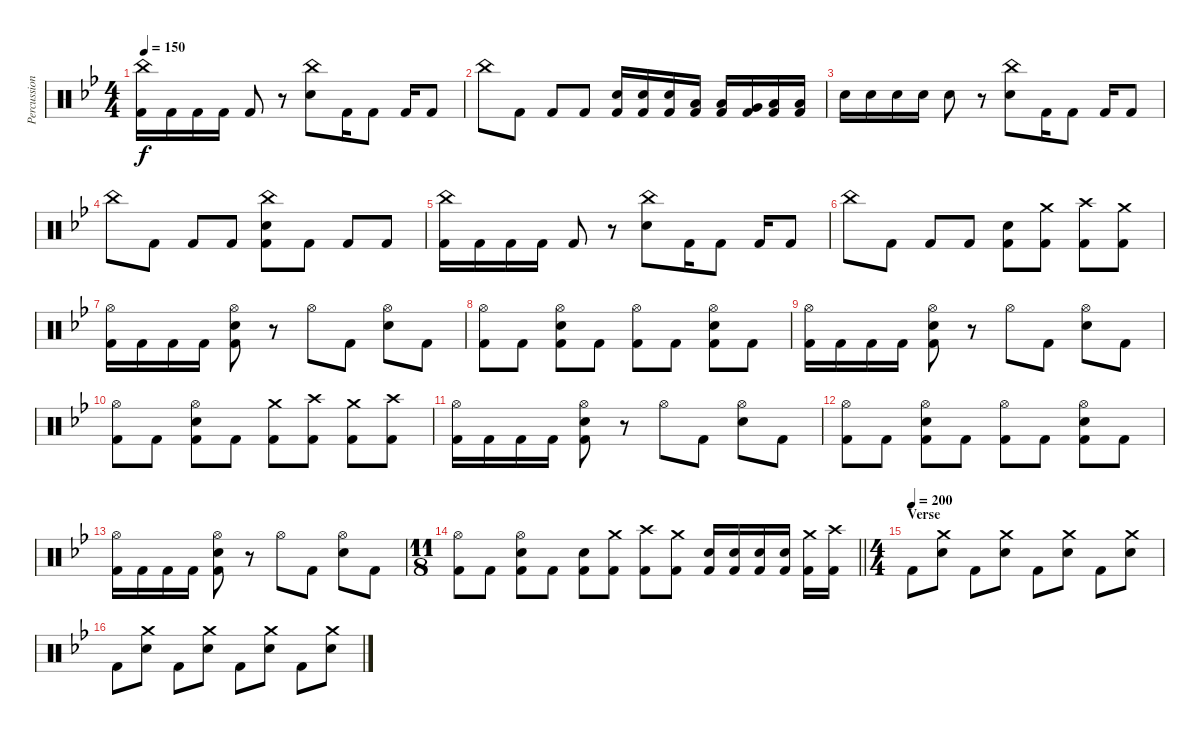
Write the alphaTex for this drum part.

\track ("Percussion" "Percussion") {instrument percussion}
\staff {score}
\articulation defaults
\ts (4 4)
\tempo 150
\clef neutral
\ks bb
("China (hit)" "Kick (hit) 2").16{dy f} "Kick (hit) 2".16 "Kick (hit) 2".16 "Kick (hit) 2".16 "Kick (hit) 2".8 r.8 ("China (hit)" "Electric Snare (hit)").8 "Kick (hit) 2".16 "Kick (hit) 2".8 "Kick (hit) 2".16 "Kick (hit) 2".8 |
"China (hit)".8 "Kick (hit) 2".8 "Kick (hit) 2".8 "Kick (hit) 2".8 ("Electric Snare (hit)" "Kick (hit) 2").16 ("Electric Snare (hit)" "Kick (hit) 2").16 ("Electric Snare (hit)" "Kick (hit) 2").16 ("Low Tom (hit)" "Kick (hit) 2").16 ("Low Tom (hit)" "Kick (hit) 2").16 ("Very Low Tom (hit)" "Kick (hit) 2").16 ("Low Floor Tom (hit)" "Kick (hit) 2").16 ("Low Floor Tom (hit)" "Kick (hit) 2").16 |
"Electric Snare (hit)".16 "Electric Snare (hit)".16 "Electric Snare (hit)".16 "Electric Snare (hit)".16 "Electric Snare (hit)".8 r.8 ("China (hit)" "Electric Snare (hit)").8 "Kick (hit) 2".16 "Kick (hit) 2".8 "Kick (hit) 2".16 "Kick (hit) 2".8 |
"China (hit)".8 "Kick (hit) 2".8 "Kick (hit) 2".8 "Kick (hit) 2".8 ("China (hit)" "Electric Snare (hit)" "Kick (hit) 2").8 "Kick (hit) 2".8 "Kick (hit) 2".8 "Kick (hit) 2".8 |
("China (hit)" "Kick (hit) 2").16 "Kick (hit) 2".16 "Kick (hit) 2".16 "Kick (hit) 2".16 "Kick (hit) 2".8 r.8 ("China (hit)" "Electric Snare (hit)").8 "Kick (hit) 2".16 "Kick (hit) 2".8 "Kick (hit) 2".16 "Kick (hit) 2".8 |
"China (hit)".8 "Kick (hit) 2".8 "Kick (hit) 2".8 "Kick (hit) 2".8 ("Electric Snare (hit)" "Kick (hit) 2").8 ("Crash medium (hit)" "Kick (hit) 2").8 ("Crash high (hit)" "Kick (hit) 2").8 ("Crash medium (hit)" "Kick (hit) 2").8 |
("Hi-Hat (open)" "Kick (hit) 2").16 "Kick (hit) 2".16 "Kick (hit) 2".16 "Kick (hit) 2".16 ("Hi-Hat (open)" "Electric Snare (hit)" "Kick (hit) 2").8 r.8 "Hi-Hat (open)".8 "Kick (hit) 2".8 ("Hi-Hat (open)" "Electric Snare (hit)").8 "Kick (hit) 2".8 |
("Hi-Hat (open)" "Kick (hit) 2").8 "Kick (hit) 2".8 ("Hi-Hat (open)" "Electric Snare (hit)" "Kick (hit) 2").8 "Kick (hit) 2".8 ("Hi-Hat (open)" "Kick (hit) 2").8 "Kick (hit) 2".8 ("Hi-Hat (open)" "Electric Snare (hit)" "Kick (hit) 2").8 "Kick (hit) 2".8 |
("Hi-Hat (open)" "Kick (hit) 2").16 "Kick (hit) 2".16 "Kick (hit) 2".16 "Kick (hit) 2".16 ("Hi-Hat (open)" "Electric Snare (hit)" "Kick (hit) 2").8 r.8 "Hi-Hat (open)".8 "Kick (hit) 2".8 ("Hi-Hat (open)" "Electric Snare (hit)").8 "Kick (hit) 2".8 |
("Hi-Hat (open)" "Kick (hit) 2").8 "Kick (hit) 2".8 ("Hi-Hat (open)" "Electric Snare (hit)" "Kick (hit) 2").8 "Kick (hit) 2".8 ("Crash medium (hit)" "Kick (hit) 2").8 ("Crash high (hit)" "Kick (hit) 2").8 ("Crash medium (hit)" "Kick (hit) 2").8 ("Crash high (hit)" "Kick (hit) 2").8 |
("Hi-Hat (open)" "Kick (hit) 2").16 "Kick (hit) 2".16 "Kick (hit) 2".16 "Kick (hit) 2".16 ("Hi-Hat (open)" "Electric Snare (hit)" "Kick (hit) 2").8 r.8 "Hi-Hat (open)".8 "Kick (hit) 2".8 ("Hi-Hat (open)" "Electric Snare (hit)").8 "Kick (hit) 2".8 |
("Hi-Hat (open)" "Kick (hit) 2").8 "Kick (hit) 2".8 ("Hi-Hat (open)" "Electric Snare (hit)" "Kick (hit) 2").8 "Kick (hit) 2".8 ("Hi-Hat (open)" "Kick (hit) 2").8 "Kick (hit) 2".8 ("Hi-Hat (open)" "Electric Snare (hit)" "Kick (hit) 2").8 "Kick (hit) 2".8 |
("Hi-Hat (open)" "Kick (hit) 2").16 "Kick (hit) 2".16 "Kick (hit) 2".16 "Kick (hit) 2".16 ("Hi-Hat (open)" "Electric Snare (hit)" "Kick (hit) 2").8 r.8 "Hi-Hat (open)".8 "Kick (hit) 2".8 ("Hi-Hat (open)" "Electric Snare (hit)").8 "Kick (hit) 2".8 |
\ts (11 8)
\barLineRight lightlight
("Hi-Hat (open)" "Kick (hit) 2").8 "Kick (hit) 2".8 ("Hi-Hat (open)" "Electric Snare (hit)" "Kick (hit) 2").8 "Kick (hit) 2".8 ("Electric Snare (hit)" "Kick (hit) 2").8 ("Crash medium (hit)" "Kick (hit) 2").8 ("Crash high (hit)" "Kick (hit) 2").8 ("Crash medium (hit)" "Kick (hit) 2").8 ("Electric Snare (hit)" "Kick (hit) 2").16 ("Electric Snare (hit)" "Kick (hit) 2").16 ("Electric Snare (hit)" "Kick (hit) 2").16 ("Electric Snare (hit)" "Kick (hit) 2").16 ("Crash medium (hit)" "Kick (hit) 2").16 ("Crash high (hit)" "Kick (hit) 2").16 |
\ts (4 4)
\section ("" "Verse")
\tempo (200)
"Kick (hit) 2".8 ("Crash medium (hit)" "Electric Snare (hit)").8 "Kick (hit) 2".8 ("Crash medium (hit)" "Electric Snare (hit)").8 "Kick (hit) 2".8 ("Crash medium (hit)" "Electric Snare (hit)").8 "Kick (hit) 2".8 ("Crash medium (hit)" "Electric Snare (hit)").8 |
"Kick (hit) 2".8 ("Crash medium (hit)" "Electric Snare (hit)").8 "Kick (hit) 2".8 ("Crash medium (hit)" "Electric Snare (hit)").8 "Kick (hit) 2".8 ("Crash medium (hit)" "Electric Snare (hit)").8 "Kick (hit) 2".8 ("Crash medium (hit)" "Electric Snare (hit)").8
